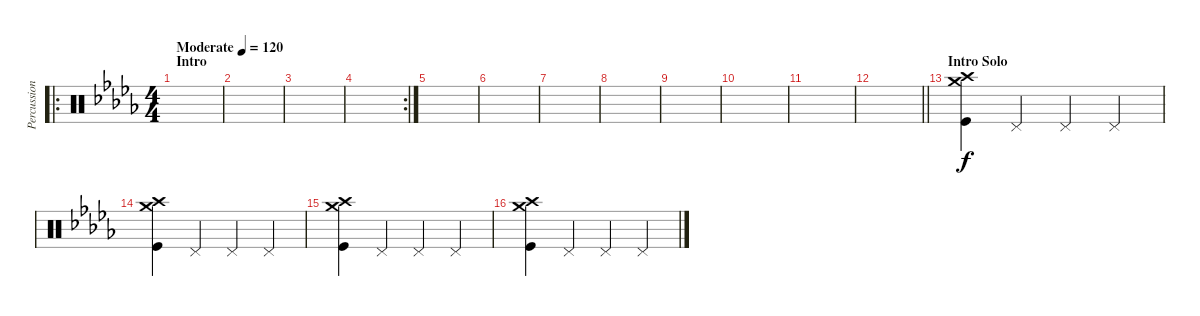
\track ("Percussion" "Percussion") {instrument percussion}
\staff {score}
\articulation defaults
\ro
\ts (4 4)
\section ("" "Intro")
\tempo (120 "Moderate")
\clef neutral
\ks bbminor
|
|
|
\rc 2
|
|
|
|
|
|
|
|
\barLineRight lightlight
|
\section ("" "Intro Solo")
("Crash medium (hit)" "Crash high (hit)" "Kick (hit)").4 "Pedal Hi-Hat (hit)".4 "Pedal Hi-Hat (hit)".4 "Pedal Hi-Hat (hit)".4 |
("Crash medium (hit)" "Crash high (hit)" "Kick (hit)").4 "Pedal Hi-Hat (hit)".4 "Pedal Hi-Hat (hit)".4 "Pedal Hi-Hat (hit)".4 |
("Crash medium (hit)" "Crash high (hit)" "Kick (hit)").4 "Pedal Hi-Hat (hit)".4 "Pedal Hi-Hat (hit)".4 "Pedal Hi-Hat (hit)".4 |
("Crash medium (hit)" "Crash high (hit)" "Kick (hit)").4 "Pedal Hi-Hat (hit)".4 "Pedal Hi-Hat (hit)".4 "Pedal Hi-Hat (hit)".4
